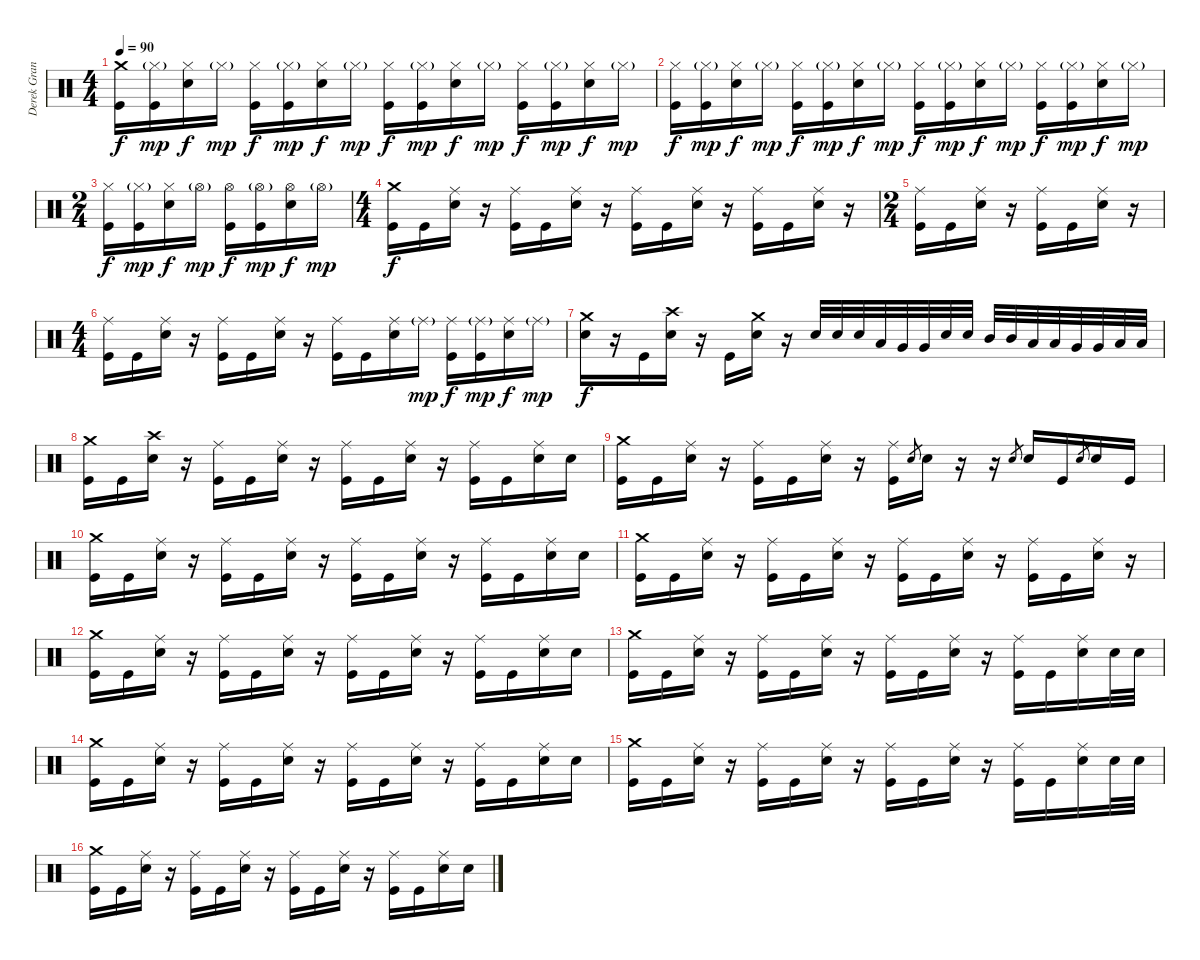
\track ("Derek Grant" "Derek Gran") {instrument percussion}
\staff {score}
\articulation defaults
\ts (4 4)
\tempo 90
\clef neutral
\ks c
("Crash medium (hit)" "Kick (hit)").16{dy f} ("Hi-Hat (closed)"{g} "Kick (hit)").16{dy mp} ("Hi-Hat (closed)" "Electric Snare (hit)").16{dy f} "Hi-Hat (closed)"{g}.16{dy mp} ("Hi-Hat (closed)" "Kick (hit)").16{dy f} ("Hi-Hat (closed)"{g} "Kick (hit)").16{dy mp} ("Hi-Hat (closed)" "Electric Snare (hit)").16{dy f} "Hi-Hat (closed)"{g}.16{dy mp} ("Hi-Hat (closed)" "Kick (hit)").16{dy f} ("Hi-Hat (closed)"{g} "Kick (hit)").16{dy mp} ("Hi-Hat (closed)" "Electric Snare (hit)").16{dy f} "Hi-Hat (closed)"{g}.16{dy mp} ("Hi-Hat (closed)" "Kick (hit)").16{dy f} ("Hi-Hat (closed)"{g} "Kick (hit)").16{dy mp} ("Hi-Hat (closed)" "Electric Snare (hit)").16{dy f} "Hi-Hat (closed)"{g}.16{dy mp} |
("Hi-Hat (closed)" "Kick (hit)").16{dy f} ("Hi-Hat (closed)"{g} "Kick (hit)").16{dy mp} ("Hi-Hat (closed)" "Electric Snare (hit)").16{dy f} "Hi-Hat (closed)"{g}.16{dy mp} ("Hi-Hat (closed)" "Kick (hit)").16{dy f} ("Hi-Hat (closed)"{g} "Kick (hit)").16{dy mp} ("Hi-Hat (closed)" "Electric Snare (hit)").16{dy f} "Hi-Hat (closed)"{g}.16{dy mp} ("Hi-Hat (closed)" "Kick (hit)").16{dy f} ("Hi-Hat (closed)"{g} "Kick (hit)").16{dy mp} ("Hi-Hat (closed)" "Electric Snare (hit)").16{dy f} "Hi-Hat (closed)"{g}.16{dy mp} ("Hi-Hat (closed)" "Kick (hit)").16{dy f} ("Hi-Hat (closed)"{g} "Kick (hit)").16{dy mp} ("Hi-Hat (closed)" "Electric Snare (hit)").16{dy f} "Hi-Hat (closed)"{g}.16{dy mp} |
\ts (2 4)
("Hi-Hat (closed)" "Kick (hit)").16{dy f} ("Hi-Hat (closed)"{g} "Kick (hit)").16{dy mp} ("Hi-Hat (closed)" "Electric Snare (hit)").16{dy f} "Hi-Hat (open)"{g}.16{dy mp} ("Hi-Hat (open)" "Kick (hit)").16{dy f} ("Hi-Hat (open)"{g} "Kick (hit)").16{dy mp} ("Hi-Hat (open)" "Electric Snare (hit)").16{dy f} "Hi-Hat (open)"{g}.16{dy mp} |
\ts (4 4)
("Crash medium (hit)" "Kick (hit)").16{dy f} "Kick (hit)".16 ("Ride (middle)" "Electric Snare (hit)").16 r.16 ("Ride (middle)" "Kick (hit)").16 "Kick (hit)".16 ("Ride (middle)" "Electric Snare (hit)").16 r.16 ("Ride (middle)" "Kick (hit)").16 "Kick (hit)".16 ("Ride (middle)" "Electric Snare (hit)").16 r.16 ("Ride (middle)" "Kick (hit)").16 "Kick (hit)".16 ("Ride (middle)" "Electric Snare (hit)").16 r.16 |
\ts (2 4)
("Ride (middle)" "Kick (hit)").16 "Kick (hit)".16 ("Ride (middle)" "Electric Snare (hit)").16 r.16 ("Ride (middle)" "Kick (hit)").16 "Kick (hit)".16 ("Ride (middle)" "Electric Snare (hit)").16 r.16 |
\ts (4 4)
("Ride (middle)" "Kick (hit)").16 "Kick (hit)".16 ("Ride (middle)" "Electric Snare (hit)").16 r.16 ("Ride (middle)" "Kick (hit)").16 "Kick (hit)".16 ("Ride (middle)" "Electric Snare (hit)").16 r.16 ("Ride (middle)" "Kick (hit)").16 "Kick (hit)".16 ("Ride (middle)" "Electric Snare (hit)").16 "Ride (middle)"{g}.16{dy mp} ("Ride (middle)" "Kick (hit)").16{dy f} ("Ride (middle)"{g} "Kick (hit)").16{dy mp} ("Ride (middle)" "Electric Snare (hit)").16{dy f} "Ride (middle)"{g}.16{dy mp} |
("Crash medium (hit)" "Electric Snare (hit)").16{dy f} r.16 "Kick (hit)".16 ("Crash high (hit)" "Electric Snare (hit)").16 r.16 "Kick (hit)".16 ("Crash medium (hit)" "Electric Snare (hit)").16 r.16 "Electric Snare (hit)".32 "Electric Snare (hit)".32 "Electric Snare (hit)".32 "Low Tom (hit)".32 "Very Low Tom (hit)".32 "Very Low Tom (hit)".32 "Electric Snare (hit)".32 "Electric Snare (hit)".32 "Mid Tom (hit)".32 "Mid Tom (hit)".32 "Low Tom (hit)".32 "Low Tom (hit)".32 "Very Low Tom (hit)".32 "Very Low Tom (hit)".32 "Low Floor Tom (hit)".32 "Low Floor Tom (hit)".32 |
("Crash medium (hit)" "Kick (hit)").16 "Kick (hit)".16 ("Crash high (hit)" "Electric Snare (hit)").16 r.16 ("Ride (middle)" "Kick (hit)").16 "Kick (hit)".16 ("Ride (middle)" "Electric Snare (hit)").16 r.16 ("Ride (middle)" "Kick (hit)").16 "Kick (hit)".16 ("Ride (middle)" "Electric Snare (hit)").16 r.16 ("Ride (middle)" "Kick (hit)").16 "Kick (hit)".16 ("Ride (middle)" "Electric Snare (hit)").16 "Electric Snare (hit)".16 |
("Crash medium (hit)" "Kick (hit)").16 "Kick (hit)".16 ("Ride (middle)" "Electric Snare (hit)").16 r.16 ("Ride (middle)" "Kick (hit)").16 "Kick (hit)".16 ("Ride (middle)" "Electric Snare (hit)").16 r.16 ("Ride (middle)" "Kick (hit)").16 "Electric Snare (hit)".8{gr} "Electric Snare (hit)".16 r.16 r.16 "Electric Snare (hit)".8{gr} "Electric Snare (hit)".16 "Kick (hit)".16 "Electric Snare (hit)".8{gr} "Electric Snare (hit)".16 "Kick (hit)".16 |
("Crash medium (hit)" "Kick (hit)").16 "Kick (hit)".16 ("Ride (middle)" "Electric Snare (hit)").16 r.16 ("Ride (middle)" "Kick (hit)").16 "Kick (hit)".16 ("Ride (middle)" "Electric Snare (hit)").16 r.16 ("Ride (middle)" "Kick (hit)").16 "Kick (hit)".16 ("Ride (middle)" "Electric Snare (hit)").16 r.16 ("Ride (middle)" "Kick (hit)").16 "Kick (hit)".16 ("Ride (middle)" "Electric Snare (hit)").16 "Electric Snare (hit)".16 |
("Crash medium (hit)" "Kick (hit)").16 "Kick (hit)".16 ("Ride (middle)" "Electric Snare (hit)").16 r.16 ("Ride (middle)" "Kick (hit)").16 "Kick (hit)".16 ("Ride (middle)" "Electric Snare (hit)").16 r.16 ("Ride (middle)" "Kick (hit)").16 "Kick (hit)".16 ("Ride (middle)" "Electric Snare (hit)").16 r.16 ("Ride (middle)" "Kick (hit)").16 "Kick (hit)".16 ("Ride (middle)" "Electric Snare (hit)").16 r.16 |
("Crash medium (hit)" "Kick (hit)").16 "Kick (hit)".16 ("Ride (middle)" "Electric Snare (hit)").16 r.16 ("Ride (middle)" "Kick (hit)").16 "Kick (hit)".16 ("Ride (middle)" "Electric Snare (hit)").16 r.16 ("Ride (middle)" "Kick (hit)").16 "Kick (hit)".16 ("Ride (middle)" "Electric Snare (hit)").16 r.16 ("Ride (middle)" "Kick (hit)").16 "Kick (hit)".16 ("Ride (middle)" "Electric Snare (hit)").16 "Electric Snare (hit)".16 |
("Crash medium (hit)" "Kick (hit)").16 "Kick (hit)".16 ("Ride (middle)" "Electric Snare (hit)").16 r.16 ("Ride (middle)" "Kick (hit)").16 "Kick (hit)".16 ("Ride (middle)" "Electric Snare (hit)").16 r.16 ("Ride (middle)" "Kick (hit)").16 "Kick (hit)".16 ("Ride (middle)" "Electric Snare (hit)").16 r.16 ("Ride (middle)" "Kick (hit)").16 "Kick (hit)".16 ("Ride (middle)" "Electric Snare (hit)").16 "Electric Snare (hit)".32 "Electric Snare (hit)".32 |
("Crash medium (hit)" "Kick (hit)").16 "Kick (hit)".16 ("Ride (middle)" "Electric Snare (hit)").16 r.16 ("Ride (middle)" "Kick (hit)").16 "Kick (hit)".16 ("Ride (middle)" "Electric Snare (hit)").16 r.16 ("Ride (middle)" "Kick (hit)").16 "Kick (hit)".16 ("Ride (middle)" "Electric Snare (hit)").16 r.16 ("Ride (middle)" "Kick (hit)").16 "Kick (hit)".16 ("Ride (middle)" "Electric Snare (hit)").16 "Electric Snare (hit)".16 |
("Crash medium (hit)" "Kick (hit)").16 "Kick (hit)".16 ("Ride (middle)" "Electric Snare (hit)").16 r.16 ("Ride (middle)" "Kick (hit)").16 "Kick (hit)".16 ("Ride (middle)" "Electric Snare (hit)").16 r.16 ("Ride (middle)" "Kick (hit)").16 "Kick (hit)".16 ("Ride (middle)" "Electric Snare (hit)").16 r.16 ("Ride (middle)" "Kick (hit)").16 "Kick (hit)".16 ("Ride (middle)" "Electric Snare (hit)").16 "Electric Snare (hit)".32 "Electric Snare (hit)".32 |
("Crash medium (hit)" "Kick (hit)").16 "Kick (hit)".16 ("Ride (middle)" "Electric Snare (hit)").16 r.16 ("Ride (middle)" "Kick (hit)").16 "Kick (hit)".16 ("Ride (middle)" "Electric Snare (hit)").16 r.16 ("Ride (middle)" "Kick (hit)").16 "Kick (hit)".16 ("Ride (middle)" "Electric Snare (hit)").16 r.16 ("Ride (middle)" "Kick (hit)").16 "Kick (hit)".16 ("Ride (middle)" "Electric Snare (hit)").16 "Electric Snare (hit)".16
